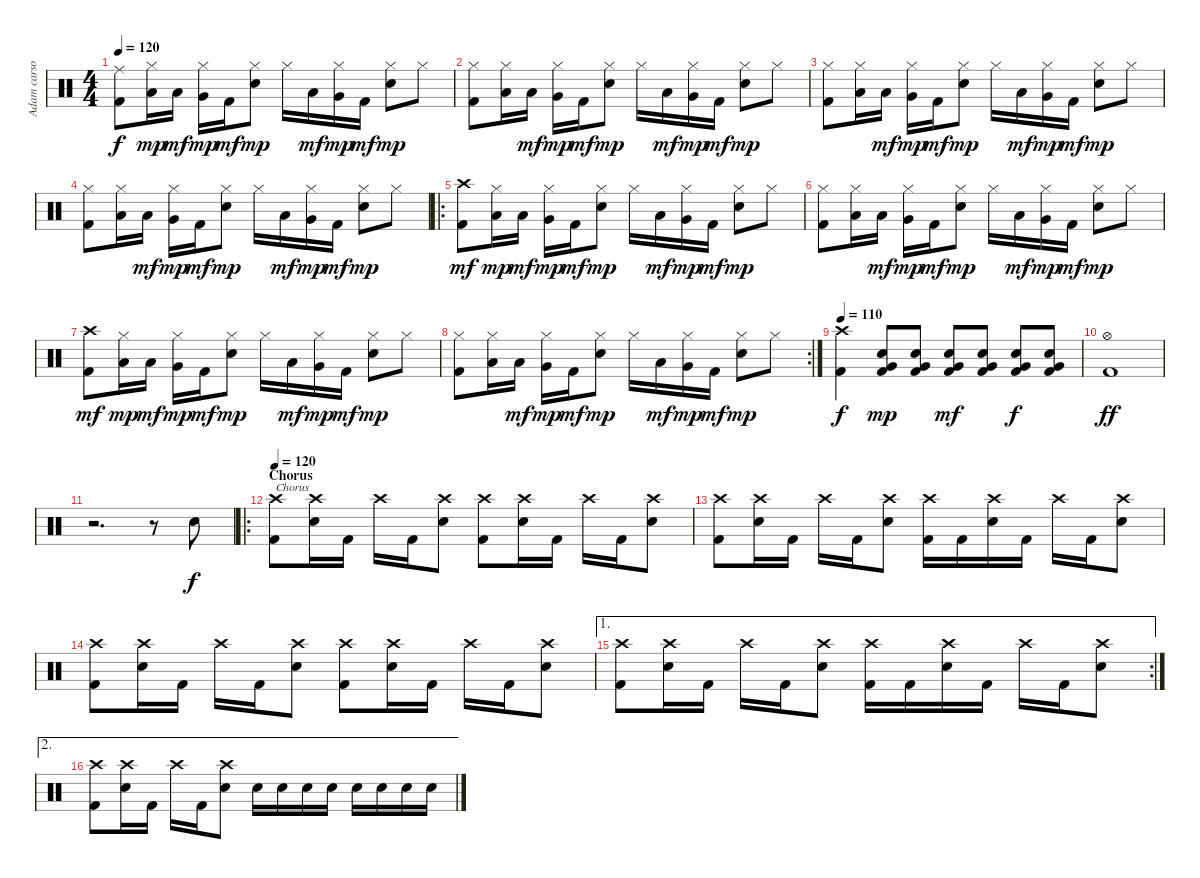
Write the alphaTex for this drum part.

\track ("Adam carson" "Adam carso") {instrument percussion}
\staff {score}
\articulation defaults
\ts (4 4)
\tempo 120
\clef neutral
\ks c
("Kick (hit) 2" "Ride (middle)").8{dy f} ("Low Tom (hit)" "Hi-Hat (closed)").16{dy mp} "Low Tom (hit)".16{dy mf} ("Very Low Tom (hit)" "Hi-Hat (closed)").16{dy mp} "Kick (hit) 2".16{dy mf} ("Snare (hit) 2" "Hi-Hat (closed)").8{dy mp} "Hi-Hat (closed)".16 "Low Tom (hit)".16{dy mf} ("Very Low Tom (hit)" "Hi-Hat (closed)").16{dy mp} "Kick (hit) 2".16{dy mf} ("Snare (hit) 2" "Hi-Hat (closed)").8{dy mp} "Hi-Hat (closed)".8 |
("Kick (hit) 2" "Hi-Hat (closed)").8 ("Low Tom (hit)" "Hi-Hat (closed)").16 "Low Tom (hit)".16{dy mf} ("Very Low Tom (hit)" "Hi-Hat (closed)").16{dy mp} "Kick (hit) 2".16{dy mf} ("Snare (hit) 2" "Hi-Hat (closed)").8{dy mp} "Hi-Hat (closed)".16 "Low Tom (hit)".16{dy mf} ("Very Low Tom (hit)" "Hi-Hat (closed)").16{dy mp} "Kick (hit) 2".16{dy mf} ("Snare (hit) 2" "Hi-Hat (closed)").8{dy mp} "Hi-Hat (closed)".8 |
("Kick (hit) 2" "Hi-Hat (closed)").8 ("Low Tom (hit)" "Hi-Hat (closed)").16 "Low Tom (hit)".16{dy mf} ("Very Low Tom (hit)" "Hi-Hat (closed)").16{dy mp} "Kick (hit) 2".16{dy mf} ("Snare (hit) 2" "Hi-Hat (closed)").8{dy mp} "Hi-Hat (closed)".16 "Low Tom (hit)".16{dy mf} ("Very Low Tom (hit)" "Hi-Hat (closed)").16{dy mp} "Kick (hit) 2".16{dy mf} ("Snare (hit) 2" "Hi-Hat (closed)").8{dy mp} "Hi-Hat (closed)".8 |
("Kick (hit) 2" "Hi-Hat (closed)").8 ("Low Tom (hit)" "Hi-Hat (closed)").16 "Low Tom (hit)".16{dy mf} ("Very Low Tom (hit)" "Hi-Hat (closed)").16{dy mp} "Kick (hit) 2".16{dy mf} ("Snare (hit) 2" "Hi-Hat (closed)").8{dy mp} "Hi-Hat (closed)".16 "Low Tom (hit)".16{dy mf} ("Very Low Tom (hit)" "Hi-Hat (closed)").16{dy mp} "Kick (hit) 2".16{dy mf} ("Snare (hit) 2" "Hi-Hat (closed)").8{dy mp} "Hi-Hat (closed)".8 |
\ro
("Kick (hit) 2" "Crash high (hit)").8{dy mf} ("Low Tom (hit)" "Hi-Hat (closed)").16{dy mp} "Low Tom (hit)".16{dy mf} ("Very Low Tom (hit)" "Hi-Hat (closed)").16{dy mp} "Kick (hit) 2".16{dy mf} ("Snare (hit) 2" "Hi-Hat (closed)").8{dy mp} "Hi-Hat (closed)".16 "Low Tom (hit)".16{dy mf} ("Very Low Tom (hit)" "Hi-Hat (closed)").16{dy mp} "Kick (hit) 2".16{dy mf} ("Snare (hit) 2" "Hi-Hat (closed)").8{dy mp} "Hi-Hat (closed)".8 |
("Kick (hit) 2" "Hi-Hat (closed)").8 ("Low Tom (hit)" "Hi-Hat (closed)").16 "Low Tom (hit)".16{dy mf} ("Very Low Tom (hit)" "Hi-Hat (closed)").16{dy mp} "Kick (hit) 2".16{dy mf} ("Snare (hit) 2" "Hi-Hat (closed)").8{dy mp} "Hi-Hat (closed)".16 "Low Tom (hit)".16{dy mf} ("Very Low Tom (hit)" "Hi-Hat (closed)").16{dy mp} "Kick (hit) 2".16{dy mf} ("Snare (hit) 2" "Hi-Hat (closed)").8{dy mp} "Hi-Hat (closed)".8 |
("Kick (hit) 2" "Crash high (hit)").8{dy mf} ("Low Tom (hit)" "Hi-Hat (closed)").16{dy mp} "Low Tom (hit)".16{dy mf} ("Very Low Tom (hit)" "Hi-Hat (closed)").16{dy mp} "Kick (hit) 2".16{dy mf} ("Snare (hit) 2" "Hi-Hat (closed)").8{dy mp} "Hi-Hat (closed)".16 "Low Tom (hit)".16{dy mf} ("Very Low Tom (hit)" "Hi-Hat (closed)").16{dy mp} "Kick (hit) 2".16{dy mf} ("Snare (hit) 2" "Hi-Hat (closed)").8{dy mp} "Hi-Hat (closed)".8 |
\rc 2
("Kick (hit) 2" "Hi-Hat (closed)").8 ("Low Tom (hit)" "Hi-Hat (closed)").16 "Low Tom (hit)".16{dy mf} ("Very Low Tom (hit)" "Hi-Hat (closed)").16{dy mp} "Kick (hit) 2".16{dy mf} ("Snare (hit) 2" "Hi-Hat (closed)").8{dy mp} "Hi-Hat (closed)".16 "Low Tom (hit)".16{dy mf} ("Very Low Tom (hit)" "Hi-Hat (closed)").16{dy mp} "Kick (hit) 2".16{dy mf} ("Snare (hit) 2" "Hi-Hat (closed)").8{dy mp} "Hi-Hat (closed)".8 |
\tempo 110
("Kick (hit) 2" "Crash high (hit)").4{dy f} ("Kick (hit) 2" "Snare (hit) 2" "Very Low Tom (hit)").8{dy mp} ("Kick (hit) 2" "Snare (hit) 2" "Very Low Tom (hit)").8 ("Kick (hit) 2" "Snare (hit) 2" "Very Low Tom (hit)").8{dy mf} ("Kick (hit) 2" "Snare (hit) 2" "Very Low Tom (hit)").8 ("Kick (hit) 2" "Snare (hit) 2" "Very Low Tom (hit)").8{dy f} ("Kick (hit) 2" "Snare (hit) 2" "Very Low Tom (hit)").8 |
("Kick (hit) 2" "Hi-Hat (open)").1{dy ff} |
r.2{d} r.8 "Snare (hit) 2".8{dy f} |
\ro
\section ("" "Chorus")
\tempo 120
("Kick (hit) 2" "Crash high (hit)").8{txt "Chorus"} ("Crash high (hit)" "Snare (hit) 2").16 "Kick (hit) 2".16 "Crash high (hit)".16 "Kick (hit) 2".16 ("Crash high (hit)" "Snare (hit) 2").8 ("Kick (hit) 2" "Crash high (hit)").8 ("Crash high (hit)" "Snare (hit) 2").16 "Kick (hit) 2".16 "Crash high (hit)".16 "Kick (hit) 2".16 ("Crash high (hit)" "Snare (hit) 2").8 |
("Kick (hit) 2" "Crash high (hit)").8 ("Crash high (hit)" "Snare (hit) 2").16 "Kick (hit) 2".16 "Crash high (hit)".16 "Kick (hit) 2".16 ("Crash high (hit)" "Snare (hit) 2").8 ("Kick (hit) 2" "Crash high (hit)").16 "Kick (hit) 2".16 ("Crash high (hit)" "Snare (hit) 2").16 "Kick (hit) 2".16 "Crash high (hit)".16 "Kick (hit) 2".16 ("Crash high (hit)" "Snare (hit) 2").8 |
("Kick (hit) 2" "Crash high (hit)").8 ("Crash high (hit)" "Snare (hit) 2").16 "Kick (hit) 2".16 "Crash high (hit)".16 "Kick (hit) 2".16 ("Crash high (hit)" "Snare (hit) 2").8 ("Kick (hit) 2" "Crash high (hit)").8 ("Crash high (hit)" "Snare (hit) 2").16 "Kick (hit) 2".16 "Crash high (hit)".16 "Kick (hit) 2".16 ("Crash high (hit)" "Snare (hit) 2").8 |
\ae 1
\rc 2
("Kick (hit) 2" "Crash high (hit)").8 ("Crash high (hit)" "Snare (hit) 2").16 "Kick (hit) 2".16 "Crash high (hit)".16 "Kick (hit) 2".16 ("Crash high (hit)" "Snare (hit) 2").8 ("Kick (hit) 2" "Crash high (hit)").16 "Kick (hit) 2".16 ("Crash high (hit)" "Snare (hit) 2").16 "Kick (hit) 2".16 "Crash high (hit)".16 "Kick (hit) 2".16 ("Crash high (hit)" "Snare (hit) 2").8 |
\ae 2
("Kick (hit) 2" "Crash high (hit)").8 ("Crash high (hit)" "Snare (hit) 2").16 "Kick (hit) 2".16 "Crash high (hit)".16 "Kick (hit) 2".16 ("Crash high (hit)" "Snare (hit) 2").8 "Snare (hit) 2".16 "Snare (hit) 2".16 "Snare (hit) 2".16 "Snare (hit) 2".16 "Snare (hit) 2".16 "Snare (hit) 2".16 "Snare (hit) 2".16 "Snare (hit) 2".16
